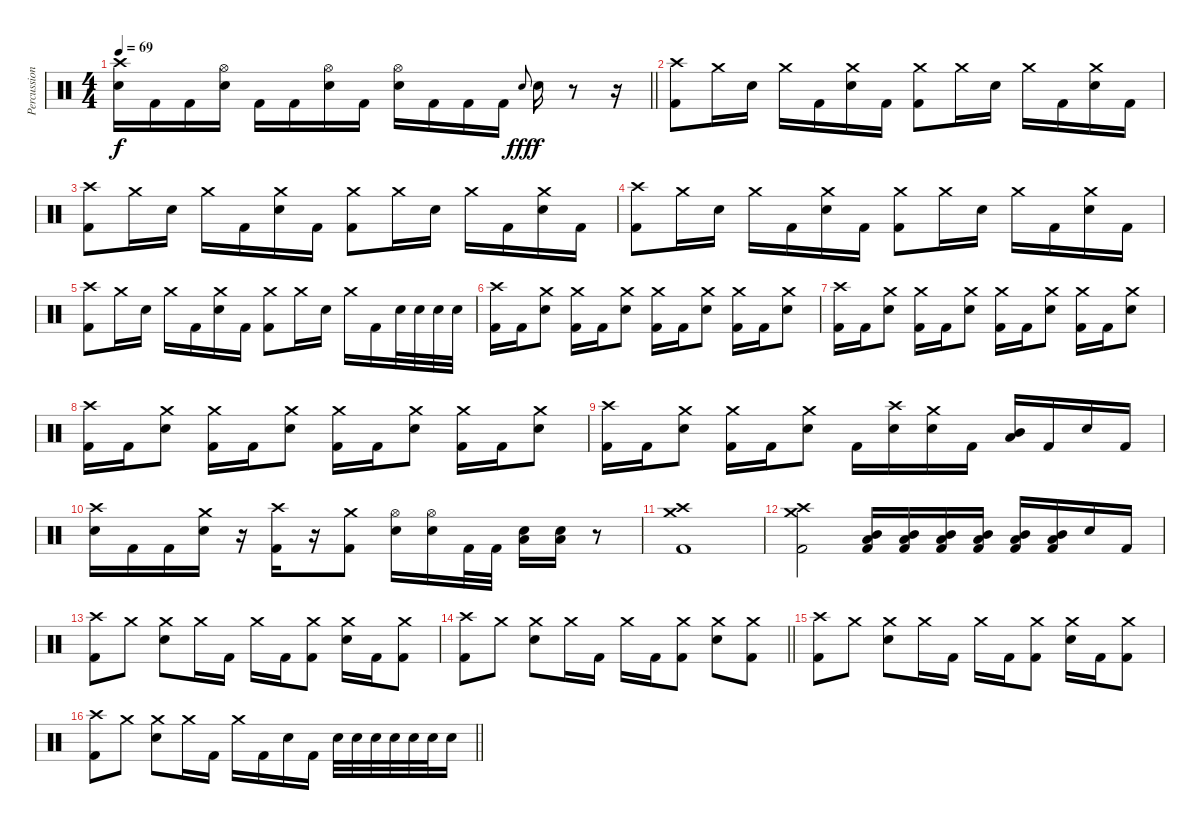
\track ("Percussion" "Percussion") {instrument percussion}
\staff {score}
\articulation defaults
\ts (4 4)
\tempo 69
\clef neutral
\barLineRight lightlight
\ks c
("Crash high (hit)" "Electric Snare (hit)").16{dy f} "Kick (hit) 2".16 "Kick (hit) 2".16 ("Hi-Hat (open)" "Electric Snare (hit)").16 "Kick (hit) 2".16 "Kick (hit) 2".16 ("Hi-Hat (open)" "Electric Snare (hit)").16 "Kick (hit) 2".16 ("Hi-Hat (open)" "Electric Snare (hit)").16 "Kick (hit) 2".16 "Kick (hit) 2".16 "Kick (hit) 2".16 "Electric Snare (hit)".8{gr onbeat dy fff} "Electric Snare (hit)".16{dy f} r.8 r.16 |
("Crash high (hit)" "Kick (hit) 2").8 "Crash medium (hit)".16 "Electric Snare (hit)".16 "Crash medium (hit)".16 "Kick (hit) 2".16 ("Crash medium (hit)" "Electric Snare (hit)").16 "Kick (hit) 2".16 ("Crash medium (hit)" "Kick (hit) 2").8 "Crash medium (hit)".16 "Electric Snare (hit)".16 "Crash medium (hit)".16 "Kick (hit) 2".16 ("Crash medium (hit)" "Electric Snare (hit)").16 "Kick (hit) 2".16 |
("Crash high (hit)" "Kick (hit) 2").8 "Crash medium (hit)".16 "Electric Snare (hit)".16 "Crash medium (hit)".16 "Kick (hit) 2".16 ("Crash medium (hit)" "Electric Snare (hit)").16 "Kick (hit) 2".16 ("Crash medium (hit)" "Kick (hit) 2").8 "Crash medium (hit)".16 "Electric Snare (hit)".16 "Crash medium (hit)".16 "Kick (hit) 2".16 ("Crash medium (hit)" "Electric Snare (hit)").16 "Kick (hit) 2".16 |
("Crash high (hit)" "Kick (hit) 2").8 "Crash medium (hit)".16 "Electric Snare (hit)".16 "Crash medium (hit)".16 "Kick (hit) 2".16 ("Crash medium (hit)" "Electric Snare (hit)").16 "Kick (hit) 2".16 ("Crash medium (hit)" "Kick (hit) 2").8 "Crash medium (hit)".16 "Electric Snare (hit)".16 "Crash medium (hit)".16 "Kick (hit) 2".16 ("Crash medium (hit)" "Electric Snare (hit)").16 "Kick (hit) 2".16 |
("Crash high (hit)" "Kick (hit) 2").8 "Crash medium (hit)".16 "Electric Snare (hit)".16 "Crash medium (hit)".16 "Kick (hit) 2".16 ("Crash medium (hit)" "Electric Snare (hit)").16 "Kick (hit) 2".16 ("Crash medium (hit)" "Kick (hit) 2").8 "Crash medium (hit)".16 "Electric Snare (hit)".16 "Crash medium (hit)".16 "Kick (hit) 2".16 "Electric Snare (hit)".32 "Electric Snare (hit)".32 "Electric Snare (hit)".32 "Electric Snare (hit)".32 |
("Crash high (hit)" "Kick (hit) 2").16 "Kick (hit) 2".16 ("Crash medium (hit)" "Electric Snare (hit)").8 ("Crash medium (hit)" "Kick (hit) 2").16 "Kick (hit) 2".16 ("Crash medium (hit)" "Electric Snare (hit)").8 ("Crash medium (hit)" "Kick (hit) 2").16 "Kick (hit) 2".16 ("Crash medium (hit)" "Electric Snare (hit)").8 ("Crash medium (hit)" "Kick (hit) 2").16 "Kick (hit) 2".16 ("Crash medium (hit)" "Electric Snare (hit)").8 |
("Crash high (hit)" "Kick (hit) 2").16 "Kick (hit) 2".16 ("Crash medium (hit)" "Electric Snare (hit)").8 ("Crash medium (hit)" "Kick (hit) 2").16 "Kick (hit) 2".16 ("Crash medium (hit)" "Electric Snare (hit)").8 ("Crash medium (hit)" "Kick (hit) 2").16 "Kick (hit) 2".16 ("Crash medium (hit)" "Electric Snare (hit)").8 ("Crash medium (hit)" "Kick (hit) 2").16 "Kick (hit) 2".16 ("Crash medium (hit)" "Electric Snare (hit)").8 |
("Crash high (hit)" "Kick (hit) 2").16 "Kick (hit) 2".16 ("Crash medium (hit)" "Electric Snare (hit)").8 ("Crash medium (hit)" "Kick (hit) 2").16 "Kick (hit) 2".16 ("Crash medium (hit)" "Electric Snare (hit)").8 ("Crash medium (hit)" "Kick (hit) 2").16 "Kick (hit) 2".16 ("Crash medium (hit)" "Electric Snare (hit)").8 ("Crash medium (hit)" "Kick (hit) 2").16 "Kick (hit) 2".16 ("Crash medium (hit)" "Electric Snare (hit)").8 |
("Crash high (hit)" "Kick (hit) 2").16 "Kick (hit) 2".16 ("Crash medium (hit)" "Electric Snare (hit)").8 ("Crash medium (hit)" "Kick (hit) 2").16 "Kick (hit) 2".16 ("Crash medium (hit)" "Electric Snare (hit)").8 "Kick (hit) 2".16 ("Crash high (hit)" "Electric Snare (hit)").16 ("Crash medium (hit)" "Electric Snare (hit)").16 "Kick (hit) 2".16 ("Low Tom (hit)" "Mid Tom (hit)").16 "Kick (hit) 2".16 "Electric Snare (hit)".16 "Kick (hit) 2".16 |
("Crash high (hit)" "Electric Snare (hit)").16 "Kick (hit) 2".16 "Kick (hit) 2".16 ("Crash medium (hit)" "Electric Snare (hit)").16 r.16 ("Crash high (hit)" "Kick (hit) 2").16 r.16 ("Crash medium (hit)" "Kick (hit) 2").8 ("Hi-Hat (open)" "Electric Snare (hit)").16 ("Hi-Hat (open)" "Electric Snare (hit)").16 "Kick (hit) 2".32 "Kick (hit) 2".32 ("Low Floor Tom (hit)" "Electric Snare (hit)").16 ("Low Floor Tom (hit)" "Electric Snare (hit)").16 r.8 |
("Crash high (hit)" "Crash medium (hit)" "Kick (hit) 2").1 |
("Crash high (hit)" "Crash medium (hit)" "Kick (hit) 2").2 ("Low Floor Tom (hit)" "Mid Tom (hit)" "Kick (hit) 2").16 ("Low Floor Tom (hit)" "Mid Tom (hit)" "Kick (hit) 2").16 ("Low Floor Tom (hit)" "Mid Tom (hit)" "Kick (hit) 2").16 ("Low Floor Tom (hit)" "Mid Tom (hit)" "Kick (hit) 2").16 ("Low Floor Tom (hit)" "Mid Tom (hit)" "Kick (hit) 2").16 ("Low Floor Tom (hit)" "Mid Tom (hit)" "Kick (hit) 2").16 "Electric Snare (hit)".16 "Kick (hit) 2".16 |
("Crash high (hit)" "Kick (hit) 2").8 "Crash medium (hit)".8 ("Crash medium (hit)" "Electric Snare (hit)").8 "Crash medium (hit)".16 "Kick (hit) 2".16 "Crash medium (hit)".16 "Kick (hit) 2".16 ("Crash medium (hit)" "Kick (hit) 2").8 ("Crash medium (hit)" "Electric Snare (hit)").16 "Kick (hit) 2".16 ("Crash medium (hit)" "Kick (hit) 2").8 |
\barLineRight lightlight
("Crash high (hit)" "Kick (hit) 2").8 "Crash medium (hit)".8 ("Crash medium (hit)" "Electric Snare (hit)").8 "Crash medium (hit)".16 "Kick (hit) 2".16 "Crash medium (hit)".16 "Kick (hit) 2".16 ("Crash medium (hit)" "Kick (hit) 2").8 ("Crash medium (hit)" "Electric Snare (hit)").8 ("Crash medium (hit)" "Kick (hit) 2").8 |
("Crash high (hit)" "Kick (hit) 2").8 "Crash medium (hit)".8 ("Crash medium (hit)" "Electric Snare (hit)").8 "Crash medium (hit)".16 "Kick (hit) 2".16 "Crash medium (hit)".16 "Kick (hit) 2".16 ("Crash medium (hit)" "Kick (hit) 2").8 ("Crash medium (hit)" "Electric Snare (hit)").16 "Kick (hit) 2".16 ("Crash medium (hit)" "Kick (hit) 2").8 |
\barLineRight lightlight
("Crash high (hit)" "Kick (hit) 2").8 "Crash medium (hit)".8 ("Crash medium (hit)" "Electric Snare (hit)").8 "Crash medium (hit)".16 "Kick (hit) 2".16 "Crash medium (hit)".16 "Kick (hit) 2".16 "Electric Snare (hit)".16 "Kick (hit) 2".16 "Electric Snare (hit)".32 "Electric Snare (hit)".32 "Electric Snare (hit)".32 "Electric Snare (hit)".32 "Electric Snare (hit)".32 "Electric Snare (hit)".32 "Electric Snare (hit)".16
